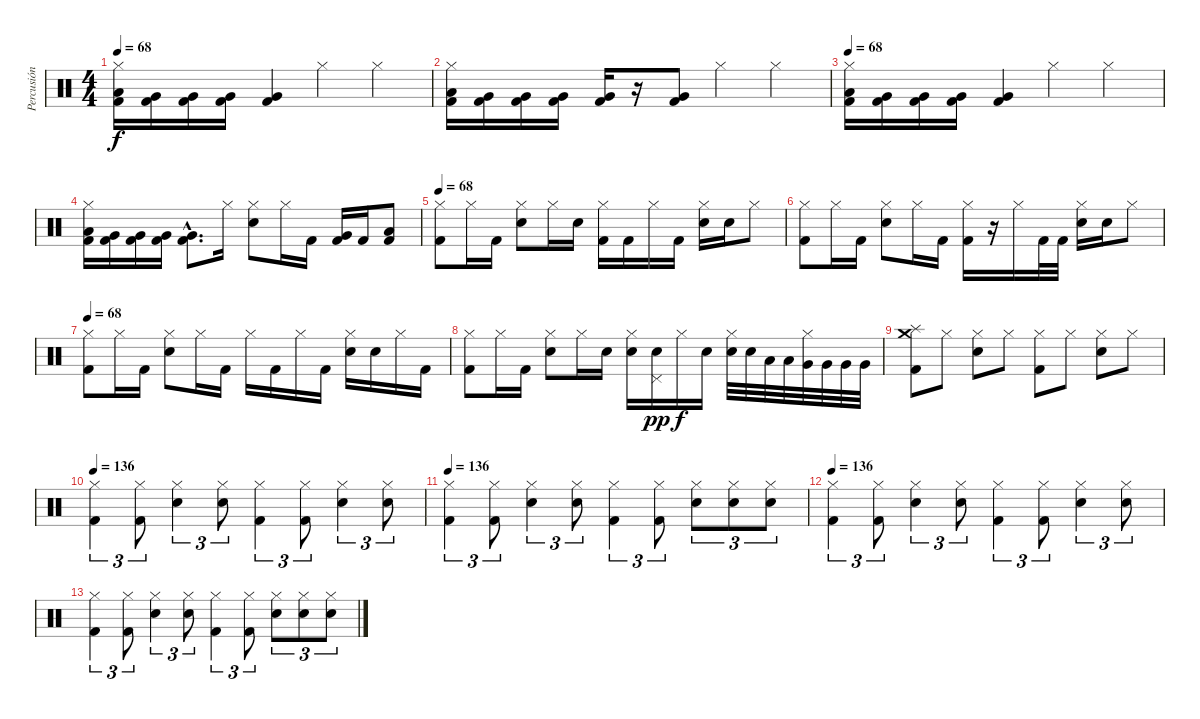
\track ("Percusión" "Percusión") {instrument percussion}
\staff {score}
\articulation defaults
\ts (4 4)
\tempo 68
\clef neutral
\ks c
("Kick (hit) 2" "Low Floor Tom (hit)" "Hi-Hat (closed)").16{dy f} ("Kick (hit) 2" "Very Low Tom (hit)").16 ("Kick (hit) 2" "Very Low Tom (hit)").16 ("Kick (hit) 2" "Very Low Tom (hit)").16 ("Kick (hit) 2" "Very Low Tom (hit)").4 "Hi-Hat (closed)".4 "Hi-Hat (closed)".4 |
("Kick (hit) 2" "Low Floor Tom (hit)" "Hi-Hat (closed)").16 ("Kick (hit) 2" "Very Low Tom (hit)").16 ("Kick (hit) 2" "Very Low Tom (hit)").16 ("Kick (hit) 2" "Very Low Tom (hit)").16 ("Kick (hit) 2" "Very Low Tom (hit)").16 r.16 ("Kick (hit) 2" "Very Low Tom (hit)").8 "Hi-Hat (closed)".4 "Hi-Hat (closed)".4 |
\tempo 68
("Kick (hit) 2" "Low Floor Tom (hit)" "Hi-Hat (closed)").16 ("Kick (hit) 2" "Very Low Tom (hit)").16 ("Kick (hit) 2" "Very Low Tom (hit)").16 ("Kick (hit) 2" "Very Low Tom (hit)").16 ("Kick (hit) 2" "Very Low Tom (hit)").4 "Hi-Hat (closed)".4 "Hi-Hat (closed)".4 |
("Kick (hit) 2" "Low Floor Tom (hit)" "Hi-Hat (closed)").16 ("Kick (hit) 2" "Very Low Tom (hit)").16 ("Kick (hit) 2" "Very Low Tom (hit)").16 ("Kick (hit) 2" "Very Low Tom (hit)").16 ("Kick (hit) 2"{hac} "Very Low Tom (hit)"{hac}).8{d} "Hi-Hat (closed)".16 ("Snare (hit) 2" "Hi-Hat (closed)").8 "Hi-Hat (closed)".16 "Kick (hit) 2".16 ("Kick (hit) 2" "Very Low Tom (hit)").16 "Kick (hit) 2".16 ("Kick (hit) 2" "Low Floor Tom (hit)").8 |
\tempo 68
("Kick (hit) 2" "Hi-Hat (closed)").8 "Hi-Hat (closed)".16 "Kick (hit) 2".16 ("Snare (hit) 2" "Hi-Hat (closed)").8 "Hi-Hat (closed)".16 "Snare (hit) 2".16 ("Kick (hit) 2" "Hi-Hat (closed)").16 "Kick (hit) 2".16 "Hi-Hat (closed)".16 "Kick (hit) 2".16 ("Snare (hit) 2" "Hi-Hat (closed)").16 "Snare (hit) 2".16 "Hi-Hat (closed)".8 |
("Kick (hit) 2" "Hi-Hat (closed)").8 "Hi-Hat (closed)".16 "Kick (hit) 2".16 ("Snare (hit) 2" "Hi-Hat (closed)").8 "Hi-Hat (closed)".16 "Kick (hit) 2".16 ("Kick (hit) 2" "Hi-Hat (closed)").16 r.16 "Hi-Hat (closed)".16 "Kick (hit) 2".32 "Kick (hit) 2".32 ("Snare (hit) 2" "Hi-Hat (closed)").16 "Snare (hit) 2".16 "Hi-Hat (closed)".8 |
\tempo 68
("Kick (hit) 2" "Hi-Hat (closed)").8 "Hi-Hat (closed)".16 "Kick (hit) 2".16 ("Snare (hit) 2" "Hi-Hat (closed)").8 "Hi-Hat (closed)".16 "Kick (hit) 2".16 "Hi-Hat (closed)".16 "Kick (hit) 2".16 "Hi-Hat (closed)".16 "Kick (hit) 2".16 ("Snare (hit) 2" "Hi-Hat (closed)").16 "Snare (hit) 2".16 "Hi-Hat (closed)".16 "Kick (hit) 2".16 |
("Kick (hit) 2" "Hi-Hat (closed)").8 "Hi-Hat (closed)".16 "Kick (hit) 2".16 ("Snare (hit) 2" "Hi-Hat (closed)").8 "Hi-Hat (closed)".16 "Snare (hit) 2".16 ("Snare (hit) 2" "Hi-Hat (closed)").16 ("Snare (hit) 2" "Pedal Hi-Hat (hit)").16{dy pp} "Hi-Hat (closed)".16{dy f} "Snare (hit) 2".16 ("Snare (hit) 2" "Hi-Hat (closed)").32 "Snare (hit) 2".32 "Low Tom (hit)".32 "Low Tom (hit)".32 ("Very Low Tom (hit)" "Hi-Hat (closed)").32 "Very Low Tom (hit)".32 "Very Low Tom (hit)".32 "Very Low Tom (hit)".32 |
("Kick (hit) 2" "Crash medium (hit)" "Splash (hit)").8 "Hi-Hat (closed)".8 ("Snare (hit) 2" "Hi-Hat (closed)").8 "Hi-Hat (closed)".8 ("Kick (hit) 2" "Hi-Hat (closed)").8 "Hi-Hat (closed)".8 ("Snare (hit) 2" "Hi-Hat (closed)").8 "Hi-Hat (closed)".8 |
\tempo 136
("Kick (hit) 2" "Hi-Hat (closed)").4{tu (3 2)} ("Kick (hit) 2" "Hi-Hat (closed)").8{tu (3 2)} ("Snare (hit) 2" "Hi-Hat (closed)").4{tu (3 2)} ("Snare (hit) 2" "Hi-Hat (closed)").8{tu (3 2)} ("Kick (hit) 2" "Hi-Hat (closed)").4{tu (3 2)} ("Kick (hit) 2" "Hi-Hat (closed)").8{tu (3 2)} ("Snare (hit) 2" "Hi-Hat (closed)").4{tu (3 2)} ("Snare (hit) 2" "Hi-Hat (closed)").8{tu (3 2)} |
\tempo 136
("Kick (hit) 2" "Hi-Hat (closed)").4{tu (3 2)} ("Kick (hit) 2" "Hi-Hat (closed)").8{tu (3 2)} ("Snare (hit) 2" "Hi-Hat (closed)").4{tu (3 2)} ("Snare (hit) 2" "Hi-Hat (closed)").8{tu (3 2)} ("Kick (hit) 2" "Hi-Hat (closed)").4{tu (3 2)} ("Kick (hit) 2" "Hi-Hat (closed)").8{tu (3 2)} ("Snare (hit) 2" "Hi-Hat (closed)").8{tu (3 2)} ("Snare (hit) 2" "Hi-Hat (closed)").8{tu (3 2)} ("Snare (hit) 2" "Hi-Hat (closed)").8{tu (3 2)} |
\tempo 136
("Kick (hit) 2" "Hi-Hat (closed)").4{tu (3 2) volume 0} ("Kick (hit) 2" "Hi-Hat (closed)").8{tu (3 2)} ("Snare (hit) 2" "Hi-Hat (closed)").4{tu (3 2)} ("Snare (hit) 2" "Hi-Hat (closed)").8{tu (3 2)} ("Kick (hit) 2" "Hi-Hat (closed)").4{tu (3 2)} ("Kick (hit) 2" "Hi-Hat (closed)").8{tu (3 2)} ("Snare (hit) 2" "Hi-Hat (closed)").4{tu (3 2)} ("Snare (hit) 2" "Hi-Hat (closed)").8{tu (3 2)} |
("Kick (hit) 2" "Hi-Hat (closed)").4{tu (3 2)} ("Kick (hit) 2" "Hi-Hat (closed)").8{tu (3 2)} ("Snare (hit) 2" "Hi-Hat (closed)").4{tu (3 2)} ("Snare (hit) 2" "Hi-Hat (closed)").8{tu (3 2)} ("Kick (hit) 2" "Hi-Hat (closed)").4{tu (3 2)} ("Kick (hit) 2" "Hi-Hat (closed)").8{tu (3 2)} ("Snare (hit) 2" "Hi-Hat (closed)").8{tu (3 2)} ("Snare (hit) 2" "Hi-Hat (closed)").8{tu (3 2)} ("Snare (hit) 2" "Hi-Hat (closed)").8{tu (3 2)}
